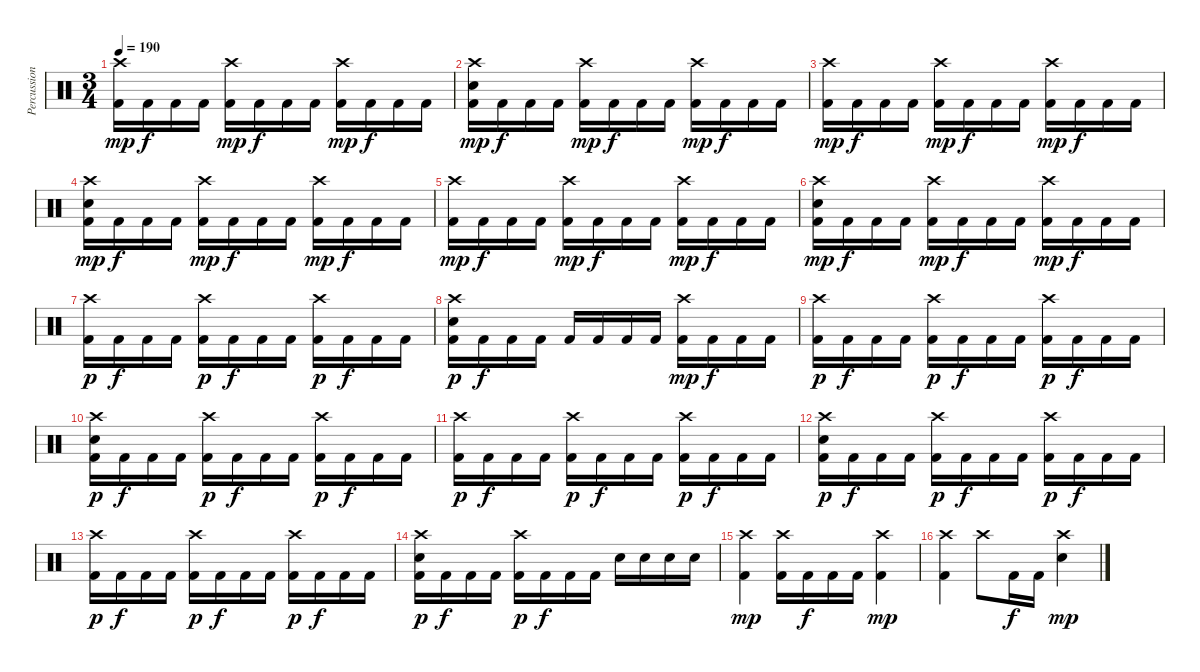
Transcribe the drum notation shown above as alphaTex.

\track ("Percussion" "Percussion") {instrument percussion}
\staff {score}
\articulation defaults
\ts (3 4)
\tempo 190
\clef neutral
\ks c
("Crash high (hit)" "Kick (hit) 2").16{dy mp} "Kick (hit) 2".16{dy f} "Kick (hit) 2".16 "Kick (hit) 2".16 ("Crash high (hit)" "Kick (hit) 2").16{dy mp} "Kick (hit) 2".16{dy f} "Kick (hit) 2".16 "Kick (hit) 2".16 ("Crash high (hit)" "Kick (hit) 2").16{dy mp} "Kick (hit) 2".16{dy f} "Kick (hit) 2".16 "Kick (hit) 2".16 |
("Crash high (hit)" "Electric Snare (hit)" "Kick (hit) 2").16{dy mp} "Kick (hit) 2".16{dy f} "Kick (hit) 2".16 "Kick (hit) 2".16 ("Crash high (hit)" "Kick (hit) 2").16{dy mp} "Kick (hit) 2".16{dy f} "Kick (hit) 2".16 "Kick (hit) 2".16 ("Crash high (hit)" "Kick (hit) 2").16{dy mp} "Kick (hit) 2".16{dy f} "Kick (hit) 2".16 "Kick (hit) 2".16 |
("Crash high (hit)" "Kick (hit) 2").16{dy mp} "Kick (hit) 2".16{dy f} "Kick (hit) 2".16 "Kick (hit) 2".16 ("Crash high (hit)" "Kick (hit) 2").16{dy mp} "Kick (hit) 2".16{dy f} "Kick (hit) 2".16 "Kick (hit) 2".16 ("Crash high (hit)" "Kick (hit) 2").16{dy mp} "Kick (hit) 2".16{dy f} "Kick (hit) 2".16 "Kick (hit) 2".16 |
("Crash high (hit)" "Electric Snare (hit)" "Kick (hit) 2").16{dy mp} "Kick (hit) 2".16{dy f} "Kick (hit) 2".16 "Kick (hit) 2".16 ("Crash high (hit)" "Kick (hit) 2").16{dy mp} "Kick (hit) 2".16{dy f} "Kick (hit) 2".16 "Kick (hit) 2".16 ("Crash high (hit)" "Kick (hit) 2").16{dy mp} "Kick (hit) 2".16{dy f} "Kick (hit) 2".16 "Kick (hit) 2".16 |
("Crash high (hit)" "Kick (hit) 2").16{dy mp} "Kick (hit) 2".16{dy f} "Kick (hit) 2".16 "Kick (hit) 2".16 ("Crash high (hit)" "Kick (hit) 2").16{dy mp} "Kick (hit) 2".16{dy f} "Kick (hit) 2".16 "Kick (hit) 2".16 ("Crash high (hit)" "Kick (hit) 2").16{dy mp} "Kick (hit) 2".16{dy f} "Kick (hit) 2".16 "Kick (hit) 2".16 |
("Crash high (hit)" "Electric Snare (hit)" "Kick (hit) 2").16{dy mp} "Kick (hit) 2".16{dy f} "Kick (hit) 2".16 "Kick (hit) 2".16 ("Crash high (hit)" "Kick (hit) 2").16{dy mp} "Kick (hit) 2".16{dy f} "Kick (hit) 2".16 "Kick (hit) 2".16 ("Crash high (hit)" "Kick (hit) 2").16{dy mp} "Kick (hit) 2".16{dy f} "Kick (hit) 2".16 "Kick (hit) 2".16 |
("Crash high (hit)" "Kick (hit) 2").16{dy p} "Kick (hit) 2".16{dy f} "Kick (hit) 2".16 "Kick (hit) 2".16 ("Crash high (hit)" "Kick (hit) 2").16{dy p} "Kick (hit) 2".16{dy f} "Kick (hit) 2".16 "Kick (hit) 2".16 ("Crash high (hit)" "Kick (hit) 2").16{dy p} "Kick (hit) 2".16{dy f} "Kick (hit) 2".16 "Kick (hit) 2".16 |
("Crash high (hit)" "Electric Snare (hit)" "Kick (hit) 2").16{dy p} "Kick (hit) 2".16{dy f} "Kick (hit) 2".16 "Kick (hit) 2".16 "Kick (hit) 2".16 "Kick (hit) 2".16 "Kick (hit) 2".16 "Kick (hit) 2".16 ("Crash high (hit)" "Kick (hit) 2").16{dy mp} "Kick (hit) 2".16{dy f} "Kick (hit) 2".16 "Kick (hit) 2".16 |
("Crash high (hit)" "Kick (hit) 2").16{dy p} "Kick (hit) 2".16{dy f} "Kick (hit) 2".16 "Kick (hit) 2".16 ("Crash high (hit)" "Kick (hit) 2").16{dy p} "Kick (hit) 2".16{dy f} "Kick (hit) 2".16 "Kick (hit) 2".16 ("Crash high (hit)" "Kick (hit) 2").16{dy p} "Kick (hit) 2".16{dy f} "Kick (hit) 2".16 "Kick (hit) 2".16 |
("Crash high (hit)" "Electric Snare (hit)" "Kick (hit) 2").16{dy p} "Kick (hit) 2".16{dy f} "Kick (hit) 2".16 "Kick (hit) 2".16 ("Crash high (hit)" "Kick (hit) 2").16{dy p} "Kick (hit) 2".16{dy f} "Kick (hit) 2".16 "Kick (hit) 2".16 ("Crash high (hit)" "Kick (hit) 2").16{dy p} "Kick (hit) 2".16{dy f} "Kick (hit) 2".16 "Kick (hit) 2".16 |
("Crash high (hit)" "Kick (hit) 2").16{dy p} "Kick (hit) 2".16{dy f} "Kick (hit) 2".16 "Kick (hit) 2".16 ("Crash high (hit)" "Kick (hit) 2").16{dy p} "Kick (hit) 2".16{dy f} "Kick (hit) 2".16 "Kick (hit) 2".16 ("Crash high (hit)" "Kick (hit) 2").16{dy p} "Kick (hit) 2".16{dy f} "Kick (hit) 2".16 "Kick (hit) 2".16 |
("Crash high (hit)" "Electric Snare (hit)" "Kick (hit) 2").16{dy p} "Kick (hit) 2".16{dy f} "Kick (hit) 2".16 "Kick (hit) 2".16 ("Crash high (hit)" "Kick (hit) 2").16{dy p} "Kick (hit) 2".16{dy f} "Kick (hit) 2".16 "Kick (hit) 2".16 ("Crash high (hit)" "Kick (hit) 2").16{dy p} "Kick (hit) 2".16{dy f} "Kick (hit) 2".16 "Kick (hit) 2".16 |
("Crash high (hit)" "Kick (hit) 2").16{dy p} "Kick (hit) 2".16{dy f} "Kick (hit) 2".16 "Kick (hit) 2".16 ("Crash high (hit)" "Kick (hit) 2").16{dy p} "Kick (hit) 2".16{dy f} "Kick (hit) 2".16 "Kick (hit) 2".16 ("Crash high (hit)" "Kick (hit) 2").16{dy p} "Kick (hit) 2".16{dy f} "Kick (hit) 2".16 "Kick (hit) 2".16 |
("Crash high (hit)" "Electric Snare (hit)" "Kick (hit) 2").16{dy p} "Kick (hit) 2".16{dy f} "Kick (hit) 2".16 "Kick (hit) 2".16 ("Crash high (hit)" "Kick (hit) 2").16{dy p} "Kick (hit) 2".16{dy f} "Kick (hit) 2".16 "Kick (hit) 2".16 "Electric Snare (hit)".16 "Electric Snare (hit)".16 "Electric Snare (hit)".16 "Electric Snare (hit)".16 |
("Crash high (hit)" "Kick (hit) 2").4{dy mp} ("Crash high (hit)" "Kick (hit) 2").16 "Kick (hit) 2".16{dy f} "Kick (hit) 2".16 "Kick (hit) 2".16 ("Crash high (hit)" "Kick (hit) 2").4{dy mp} |
("Crash high (hit)" "Kick (hit) 2").4 "Crash high (hit)".8 "Kick (hit) 2".16{dy f} "Kick (hit) 2".16 ("Crash high (hit)" "Electric Snare (hit)").4{dy mp}
